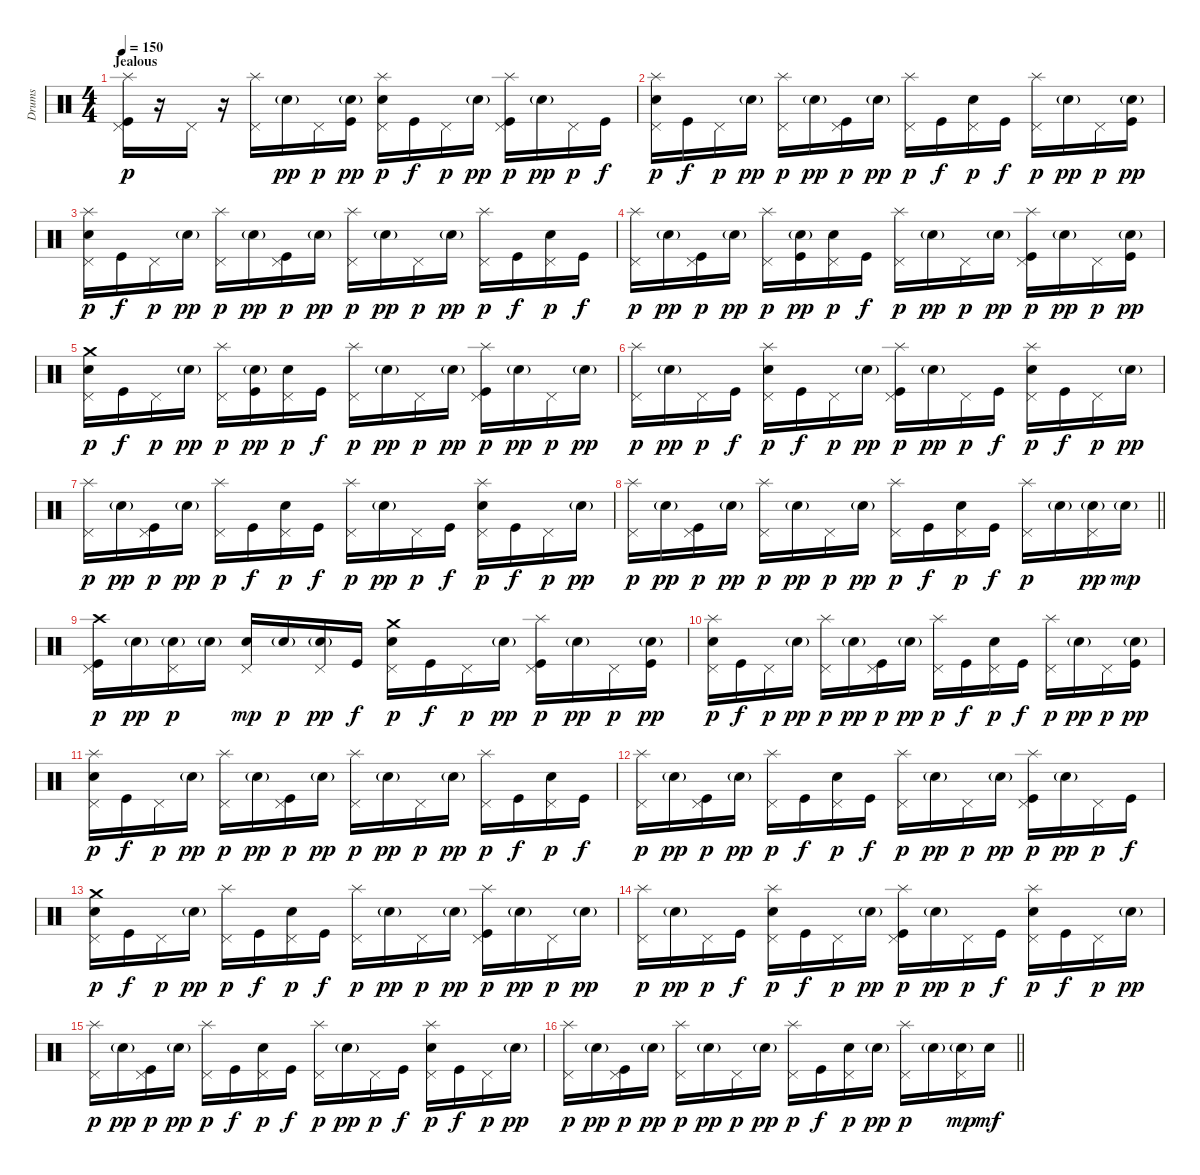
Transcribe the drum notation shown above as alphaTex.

\track ("Drums" "Drums") {instrument percussion}
\staff {score}
\articulation defaults
\ts (4 4)
\section ("" "Jealous")
\tempo 150
\clef neutral
\ks c
("Splash (hit)" "Pedal Hi-Hat (hit)" "Kick (hit)").16{dy p} r.16 "Pedal Hi-Hat (hit)".16 r.16 ("Splash (hit)" "Pedal Hi-Hat (hit)").16 "Electric Snare (hit)"{g}.16{dy pp} "Pedal Hi-Hat (hit)".16{dy p} ("Electric Snare (hit)"{g} "Kick (hit)").16{dy pp} ("Splash (hit)" "Pedal Hi-Hat (hit)" "Electric Snare (hit)").16{dy p} "Kick (hit)".16{dy f} "Pedal Hi-Hat (hit)".16{dy p} "Electric Snare (hit)"{g}.16{dy pp} ("Splash (hit)" "Pedal Hi-Hat (hit)" "Kick (hit)").16{dy p} "Electric Snare (hit)"{g}.16{dy pp} "Pedal Hi-Hat (hit)".16{dy p} "Kick (hit)".16{dy f} |
("Splash (hit)" "Pedal Hi-Hat (hit)" "Electric Snare (hit)").16{dy p} "Kick (hit)".16{dy f} "Pedal Hi-Hat (hit)".16{dy p} "Electric Snare (hit)"{g}.16{dy pp} ("Splash (hit)" "Pedal Hi-Hat (hit)").16{dy p} "Electric Snare (hit)"{g}.16{dy pp} ("Pedal Hi-Hat (hit)" "Kick (hit)").16{dy p} "Electric Snare (hit)"{g}.16{dy pp} ("Splash (hit)" "Pedal Hi-Hat (hit)").16{dy p} "Kick (hit)".16{dy f} ("Pedal Hi-Hat (hit)" "Electric Snare (hit)").16{dy p} "Kick (hit)".16{dy f} ("Splash (hit)" "Pedal Hi-Hat (hit)").16{dy p} "Electric Snare (hit)"{g}.16{dy pp} "Pedal Hi-Hat (hit)".16{dy p} ("Electric Snare (hit)"{g} "Kick (hit)").16{dy pp} |
("Splash (hit)" "Pedal Hi-Hat (hit)" "Electric Snare (hit)").16{dy p} "Kick (hit)".16{dy f} "Pedal Hi-Hat (hit)".16{dy p} "Electric Snare (hit)"{g}.16{dy pp} ("Splash (hit)" "Pedal Hi-Hat (hit)").16{dy p} "Electric Snare (hit)"{g}.16{dy pp} ("Pedal Hi-Hat (hit)" "Kick (hit)").16{dy p} "Electric Snare (hit)"{g}.16{dy pp} ("Splash (hit)" "Pedal Hi-Hat (hit)").16{dy p} "Electric Snare (hit)"{g}.16{dy pp} "Pedal Hi-Hat (hit)".16{dy p} "Electric Snare (hit)"{g}.16{dy pp} ("Splash (hit)" "Pedal Hi-Hat (hit)").16{dy p} "Kick (hit)".16{dy f} ("Pedal Hi-Hat (hit)" "Electric Snare (hit)").16{dy p} "Kick (hit)".16{dy f} |
("Splash (hit)" "Pedal Hi-Hat (hit)").16{dy p} "Electric Snare (hit)"{g}.16{dy pp} ("Pedal Hi-Hat (hit)" "Kick (hit)").16{dy p} "Electric Snare (hit)"{g}.16{dy pp} ("Splash (hit)" "Pedal Hi-Hat (hit)").16{dy p} ("Electric Snare (hit)"{g} "Kick (hit)").16{dy pp} ("Pedal Hi-Hat (hit)" "Electric Snare (hit)").16{dy p} "Kick (hit)".16{dy f} ("Splash (hit)" "Pedal Hi-Hat (hit)").16{dy p} "Electric Snare (hit)"{g}.16{dy pp} "Pedal Hi-Hat (hit)".16{dy p} "Electric Snare (hit)"{g}.16{dy pp} ("Splash (hit)" "Pedal Hi-Hat (hit)" "Kick (hit)").16{dy p} "Electric Snare (hit)"{g}.16{dy pp} "Pedal Hi-Hat (hit)".16{dy p} ("Electric Snare (hit)"{g} "Kick (hit)").16{dy pp} |
("Crash medium (hit)" "Pedal Hi-Hat (hit)" "Electric Snare (hit)").16{dy p} "Kick (hit)".16{dy f} "Pedal Hi-Hat (hit)".16{dy p} "Electric Snare (hit)"{g}.16{dy pp} ("Splash (hit)" "Pedal Hi-Hat (hit)").16{dy p} ("Electric Snare (hit)"{g} "Kick (hit)").16{dy pp} ("Pedal Hi-Hat (hit)" "Electric Snare (hit)").16{dy p} "Kick (hit)".16{dy f} ("Splash (hit)" "Pedal Hi-Hat (hit)").16{dy p} "Electric Snare (hit)"{g}.16{dy pp} "Pedal Hi-Hat (hit)".16{dy p} "Electric Snare (hit)"{g}.16{dy pp} ("Splash (hit)" "Pedal Hi-Hat (hit)" "Kick (hit)").16{dy p} "Electric Snare (hit)"{g}.16{dy pp} "Pedal Hi-Hat (hit)".16{dy p} "Electric Snare (hit)"{g}.16{dy pp} |
("Splash (hit)" "Pedal Hi-Hat (hit)").16{dy p} "Electric Snare (hit)"{g}.16{dy pp} "Pedal Hi-Hat (hit)".16{dy p} "Kick (hit)".16{dy f} ("Splash (hit)" "Pedal Hi-Hat (hit)" "Electric Snare (hit)").16{dy p} "Kick (hit)".16{dy f} "Pedal Hi-Hat (hit)".16{dy p} "Electric Snare (hit)"{g}.16{dy pp} ("Splash (hit)" "Pedal Hi-Hat (hit)" "Kick (hit)").16{dy p} "Electric Snare (hit)"{g}.16{dy pp} "Pedal Hi-Hat (hit)".16{dy p} "Kick (hit)".16{dy f} ("Splash (hit)" "Pedal Hi-Hat (hit)" "Electric Snare (hit)").16{dy p} "Kick (hit)".16{dy f} "Pedal Hi-Hat (hit)".16{dy p} "Electric Snare (hit)"{g}.16{dy pp} |
("Splash (hit)" "Pedal Hi-Hat (hit)").16{dy p} "Electric Snare (hit)"{g}.16{dy pp} ("Pedal Hi-Hat (hit)" "Kick (hit)").16{dy p} "Electric Snare (hit)"{g}.16{dy pp} ("Splash (hit)" "Pedal Hi-Hat (hit)").16{dy p} "Kick (hit)".16{dy f} ("Pedal Hi-Hat (hit)" "Electric Snare (hit)").16{dy p} "Kick (hit)".16{dy f} ("Splash (hit)" "Pedal Hi-Hat (hit)").16{dy p} "Electric Snare (hit)"{g}.16{dy pp} "Pedal Hi-Hat (hit)".16{dy p} "Kick (hit)".16{dy f} ("Splash (hit)" "Pedal Hi-Hat (hit)" "Electric Snare (hit)").16{dy p} "Kick (hit)".16{dy f} "Pedal Hi-Hat (hit)".16{dy p} "Electric Snare (hit)"{g}.16{dy pp} |
\barLineRight lightlight
("Splash (hit)" "Pedal Hi-Hat (hit)").16{dy p} "Electric Snare (hit)"{g}.16{dy pp} ("Pedal Hi-Hat (hit)" "Kick (hit)").16{dy p} "Electric Snare (hit)"{g}.16{dy pp} ("Splash (hit)" "Pedal Hi-Hat (hit)").16{dy p} "Electric Snare (hit)"{g}.16{dy pp} "Pedal Hi-Hat (hit)".16{dy p} "Electric Snare (hit)"{g}.16{dy pp} ("Splash (hit)" "Pedal Hi-Hat (hit)").16{dy p} "Kick (hit)".16{dy f} ("Pedal Hi-Hat (hit)" "Electric Snare (hit)").16{dy p} "Kick (hit)".16{dy f} ("Splash (hit)" "Pedal Hi-Hat (hit)").16{dy p} "Electric Snare (hit)"{g}.16 ("Pedal Hi-Hat (hit)" "Electric Snare (hit)"{g}).16{dy pp} "Electric Snare (hit)"{g}.16{dy mp} |
("Crash high (hit)" "Pedal Hi-Hat (hit)" "Kick (hit)").16{dy p} "Electric Snare (hit)"{g}.16{dy pp} ("Pedal Hi-Hat (hit)" "Electric Snare (hit)"{g}).16{dy p} "Electric Snare (hit)"{g}.16 ("Pedal Hi-Hat (hit)" "Electric Snare (hit)").16{dy mp} "Electric Snare (hit)"{g}.16{dy p} ("Pedal Hi-Hat (hit)" "Electric Snare (hit)"{g}).16{dy pp} "Kick (hit)".16{dy f} ("Crash medium (hit)" "Pedal Hi-Hat (hit)" "Electric Snare (hit)").16{dy p} "Kick (hit)".16{dy f} "Pedal Hi-Hat (hit)".16{dy p} "Electric Snare (hit)"{g}.16{dy pp} ("Splash (hit)" "Pedal Hi-Hat (hit)" "Kick (hit)").16{dy p} "Electric Snare (hit)"{g}.16{dy pp} "Pedal Hi-Hat (hit)".16{dy p} ("Electric Snare (hit)"{g} "Kick (hit)").16{dy pp} |
("Splash (hit)" "Pedal Hi-Hat (hit)" "Electric Snare (hit)").16{dy p} "Kick (hit)".16{dy f} "Pedal Hi-Hat (hit)".16{dy p} "Electric Snare (hit)"{g}.16{dy pp} ("Splash (hit)" "Pedal Hi-Hat (hit)").16{dy p} "Electric Snare (hit)"{g}.16{dy pp} ("Pedal Hi-Hat (hit)" "Kick (hit)").16{dy p} "Electric Snare (hit)"{g}.16{dy pp} ("Splash (hit)" "Pedal Hi-Hat (hit)").16{dy p} "Kick (hit)".16{dy f} ("Pedal Hi-Hat (hit)" "Electric Snare (hit)").16{dy p} "Kick (hit)".16{dy f} ("Splash (hit)" "Pedal Hi-Hat (hit)").16{dy p} "Electric Snare (hit)"{g}.16{dy pp} "Pedal Hi-Hat (hit)".16{dy p} ("Electric Snare (hit)"{g} "Kick (hit)").16{dy pp} |
("Splash (hit)" "Pedal Hi-Hat (hit)" "Electric Snare (hit)").16{dy p} "Kick (hit)".16{dy f} "Pedal Hi-Hat (hit)".16{dy p} "Electric Snare (hit)"{g}.16{dy pp} ("Splash (hit)" "Pedal Hi-Hat (hit)").16{dy p} "Electric Snare (hit)"{g}.16{dy pp} ("Pedal Hi-Hat (hit)" "Kick (hit)").16{dy p} "Electric Snare (hit)"{g}.16{dy pp} ("Splash (hit)" "Pedal Hi-Hat (hit)").16{dy p} "Electric Snare (hit)"{g}.16{dy pp} "Pedal Hi-Hat (hit)".16{dy p} "Electric Snare (hit)"{g}.16{dy pp} ("Splash (hit)" "Pedal Hi-Hat (hit)").16{dy p} "Kick (hit)".16{dy f} ("Pedal Hi-Hat (hit)" "Electric Snare (hit)").16{dy p} "Kick (hit)".16{dy f} |
("Splash (hit)" "Pedal Hi-Hat (hit)").16{dy p} "Electric Snare (hit)"{g}.16{dy pp} ("Pedal Hi-Hat (hit)" "Kick (hit)").16{dy p} "Electric Snare (hit)"{g}.16{dy pp} ("Splash (hit)" "Pedal Hi-Hat (hit)").16{dy p} "Kick (hit)".16{dy f} ("Pedal Hi-Hat (hit)" "Electric Snare (hit)").16{dy p} "Kick (hit)".16{dy f} ("Splash (hit)" "Pedal Hi-Hat (hit)").16{dy p} "Electric Snare (hit)"{g}.16{dy pp} "Pedal Hi-Hat (hit)".16{dy p} "Electric Snare (hit)"{g}.16{dy pp} ("Splash (hit)" "Pedal Hi-Hat (hit)" "Kick (hit)").16{dy p} "Electric Snare (hit)"{g}.16{dy pp} "Pedal Hi-Hat (hit)".16{dy p} "Kick (hit)".16{dy f} |
("Crash medium (hit)" "Pedal Hi-Hat (hit)" "Electric Snare (hit)").16{dy p} "Kick (hit)".16{dy f} "Pedal Hi-Hat (hit)".16{dy p} "Electric Snare (hit)"{g}.16{dy pp} ("Splash (hit)" "Pedal Hi-Hat (hit)").16{dy p} "Kick (hit)".16{dy f} ("Pedal Hi-Hat (hit)" "Electric Snare (hit)").16{dy p} "Kick (hit)".16{dy f} ("Splash (hit)" "Pedal Hi-Hat (hit)").16{dy p} "Electric Snare (hit)"{g}.16{dy pp} "Pedal Hi-Hat (hit)".16{dy p} "Electric Snare (hit)"{g}.16{dy pp} ("Splash (hit)" "Pedal Hi-Hat (hit)" "Kick (hit)").16{dy p} "Electric Snare (hit)"{g}.16{dy pp} "Pedal Hi-Hat (hit)".16{dy p} "Electric Snare (hit)"{g}.16{dy pp} |
("Splash (hit)" "Pedal Hi-Hat (hit)").16{dy p} "Electric Snare (hit)"{g}.16{dy pp} "Pedal Hi-Hat (hit)".16{dy p} "Kick (hit)".16{dy f} ("Splash (hit)" "Pedal Hi-Hat (hit)" "Electric Snare (hit)").16{dy p} "Kick (hit)".16{dy f} "Pedal Hi-Hat (hit)".16{dy p} "Electric Snare (hit)"{g}.16{dy pp} ("Splash (hit)" "Pedal Hi-Hat (hit)" "Kick (hit)").16{dy p} "Electric Snare (hit)"{g}.16{dy pp} "Pedal Hi-Hat (hit)".16{dy p} "Kick (hit)".16{dy f} ("Splash (hit)" "Pedal Hi-Hat (hit)" "Electric Snare (hit)").16{dy p} "Kick (hit)".16{dy f} "Pedal Hi-Hat (hit)".16{dy p} "Electric Snare (hit)"{g}.16{dy pp} |
("Splash (hit)" "Pedal Hi-Hat (hit)").16{dy p} "Electric Snare (hit)"{g}.16{dy pp} ("Pedal Hi-Hat (hit)" "Kick (hit)").16{dy p} "Electric Snare (hit)"{g}.16{dy pp} ("Splash (hit)" "Pedal Hi-Hat (hit)").16{dy p} "Kick (hit)".16{dy f} ("Pedal Hi-Hat (hit)" "Electric Snare (hit)").16{dy p} "Kick (hit)".16{dy f} ("Splash (hit)" "Pedal Hi-Hat (hit)").16{dy p} "Electric Snare (hit)"{g}.16{dy pp} "Pedal Hi-Hat (hit)".16{dy p} "Kick (hit)".16{dy f} ("Splash (hit)" "Pedal Hi-Hat (hit)" "Electric Snare (hit)").16{dy p} "Kick (hit)".16{dy f} "Pedal Hi-Hat (hit)".16{dy p} "Electric Snare (hit)"{g}.16{dy pp} |
\barLineRight lightlight
("Splash (hit)" "Pedal Hi-Hat (hit)").16{dy p} "Electric Snare (hit)"{g}.16{dy pp} ("Pedal Hi-Hat (hit)" "Kick (hit)").16{dy p} "Electric Snare (hit)"{g}.16{dy pp} ("Splash (hit)" "Pedal Hi-Hat (hit)").16{dy p} "Electric Snare (hit)"{g}.16{dy pp} "Pedal Hi-Hat (hit)".16{dy p} "Electric Snare (hit)"{g}.16{dy pp} ("Splash (hit)" "Pedal Hi-Hat (hit)").16{dy p} "Kick (hit)".16{dy f} ("Pedal Hi-Hat (hit)" "Electric Snare (hit)").16{dy p} "Electric Snare (hit)"{g}.16{dy pp} ("Splash (hit)" "Pedal Hi-Hat (hit)").16{dy p} "Electric Snare (hit)"{g}.16 ("Pedal Hi-Hat (hit)" "Electric Snare (hit)"{g}).16{dy mp} "Electric Snare (hit)".16{dy mf}
